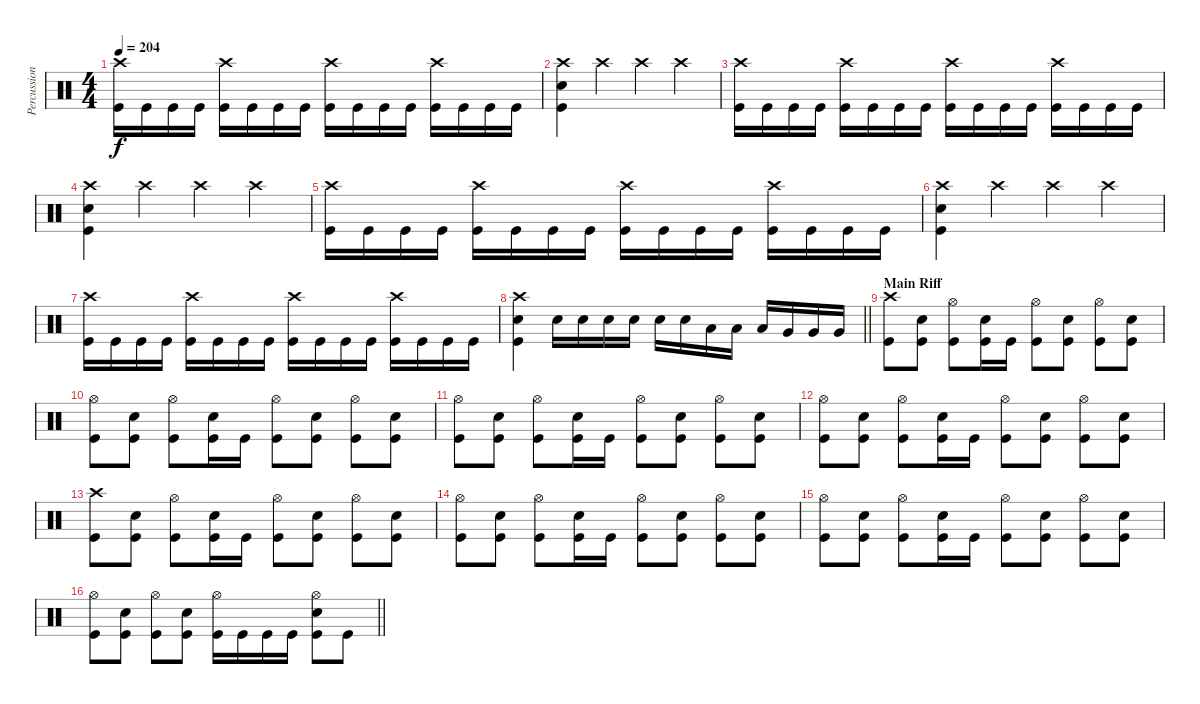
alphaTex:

\track ("Percussion" "Percussion") {instrument percussion}
\staff {score}
\articulation defaults
\ts (4 4)
\tempo 204
\clef neutral
\ks c
("Crash high (hit)" "Kick (hit)").16{dy f} "Kick (hit)".16 "Kick (hit)".16 "Kick (hit)".16 ("Crash high (hit)" "Kick (hit)").16 "Kick (hit)".16 "Kick (hit)".16 "Kick (hit)".16 ("Crash high (hit)" "Kick (hit)").16 "Kick (hit)".16 "Kick (hit)".16 "Kick (hit)".16 ("Crash high (hit)" "Kick (hit)").16 "Kick (hit)".16 "Kick (hit)".16 "Kick (hit)".16 |
("Crash high (hit)" "Electric Snare (hit)" "Kick (hit)").4 "Crash high (hit)".4 "Crash high (hit)".4 "Crash high (hit)".4 |
("Crash high (hit)" "Kick (hit)").16 "Kick (hit)".16 "Kick (hit)".16 "Kick (hit)".16 ("Crash high (hit)" "Kick (hit)").16 "Kick (hit)".16 "Kick (hit)".16 "Kick (hit)".16 ("Crash high (hit)" "Kick (hit)").16 "Kick (hit)".16 "Kick (hit)".16 "Kick (hit)".16 ("Crash high (hit)" "Kick (hit)").16 "Kick (hit)".16 "Kick (hit)".16 "Kick (hit)".16 |
("Crash high (hit)" "Electric Snare (hit)" "Kick (hit)").4 "Crash high (hit)".4 "Crash high (hit)".4 "Crash high (hit)".4 |
("Crash high (hit)" "Kick (hit)").16 "Kick (hit)".16 "Kick (hit)".16 "Kick (hit)".16 ("Crash high (hit)" "Kick (hit)").16 "Kick (hit)".16 "Kick (hit)".16 "Kick (hit)".16 ("Crash high (hit)" "Kick (hit)").16 "Kick (hit)".16 "Kick (hit)".16 "Kick (hit)".16 ("Crash high (hit)" "Kick (hit)").16 "Kick (hit)".16 "Kick (hit)".16 "Kick (hit)".16 |
("Crash high (hit)" "Electric Snare (hit)" "Kick (hit)").4 "Crash high (hit)".4 "Crash high (hit)".4 "Crash high (hit)".4 |
("Crash high (hit)" "Kick (hit)").16 "Kick (hit)".16 "Kick (hit)".16 "Kick (hit)".16 ("Crash high (hit)" "Kick (hit)").16 "Kick (hit)".16 "Kick (hit)".16 "Kick (hit)".16 ("Crash high (hit)" "Kick (hit)").16 "Kick (hit)".16 "Kick (hit)".16 "Kick (hit)".16 ("Crash high (hit)" "Kick (hit)").16 "Kick (hit)".16 "Kick (hit)".16 "Kick (hit)".16 |
\barLineRight lightlight
("Crash high (hit)" "Electric Snare (hit)" "Kick (hit)").4 "Electric Snare (hit)".16 "Electric Snare (hit)".16 "Electric Snare (hit)".16 "Electric Snare (hit)".16 "Electric Snare (hit)".16 "Electric Snare (hit)".16 "Low Tom (hit)".16 "Low Tom (hit)".16 "Low Tom (hit)".16 "Very Low Tom (hit)".16 "Very Low Tom (hit)".16 "Very Low Tom (hit)".16 |
\section ("" "Main Riff")
("Crash high (hit)" "Kick (hit)").8 ("Electric Snare (hit)" "Kick (hit)").8 ("Hi-Hat (open)" "Kick (hit)").8 ("Electric Snare (hit)" "Kick (hit)").16 "Kick (hit)".16 ("Hi-Hat (open)" "Kick (hit)").8 ("Electric Snare (hit)" "Kick (hit)").8 ("Hi-Hat (open)" "Kick (hit)").8 ("Electric Snare (hit)" "Kick (hit)").8 |
("Hi-Hat (open)" "Kick (hit)").8 ("Electric Snare (hit)" "Kick (hit)").8 ("Hi-Hat (open)" "Kick (hit)").8 ("Electric Snare (hit)" "Kick (hit)").16 "Kick (hit)".16 ("Hi-Hat (open)" "Kick (hit)").8 ("Electric Snare (hit)" "Kick (hit)").8 ("Hi-Hat (open)" "Kick (hit)").8 ("Electric Snare (hit)" "Kick (hit)").8 |
("Hi-Hat (open)" "Kick (hit)").8 ("Electric Snare (hit)" "Kick (hit)").8 ("Hi-Hat (open)" "Kick (hit)").8 ("Electric Snare (hit)" "Kick (hit)").16 "Kick (hit)".16 ("Hi-Hat (open)" "Kick (hit)").8 ("Electric Snare (hit)" "Kick (hit)").8 ("Hi-Hat (open)" "Kick (hit)").8 ("Electric Snare (hit)" "Kick (hit)").8 |
("Hi-Hat (open)" "Kick (hit)").8 ("Electric Snare (hit)" "Kick (hit)").8 ("Hi-Hat (open)" "Kick (hit)").8 ("Electric Snare (hit)" "Kick (hit)").16 "Kick (hit)".16 ("Hi-Hat (open)" "Kick (hit)").8 ("Electric Snare (hit)" "Kick (hit)").8 ("Hi-Hat (open)" "Kick (hit)").8 ("Electric Snare (hit)" "Kick (hit)").8 |
("Crash high (hit)" "Kick (hit)").8 ("Electric Snare (hit)" "Kick (hit)").8 ("Hi-Hat (open)" "Kick (hit)").8 ("Electric Snare (hit)" "Kick (hit)").16 "Kick (hit)".16 ("Hi-Hat (open)" "Kick (hit)").8 ("Electric Snare (hit)" "Kick (hit)").8 ("Hi-Hat (open)" "Kick (hit)").8 ("Electric Snare (hit)" "Kick (hit)").8 |
("Hi-Hat (open)" "Kick (hit)").8 ("Electric Snare (hit)" "Kick (hit)").8 ("Hi-Hat (open)" "Kick (hit)").8 ("Electric Snare (hit)" "Kick (hit)").16 "Kick (hit)".16 ("Hi-Hat (open)" "Kick (hit)").8 ("Electric Snare (hit)" "Kick (hit)").8 ("Hi-Hat (open)" "Kick (hit)").8 ("Electric Snare (hit)" "Kick (hit)").8 |
("Hi-Hat (open)" "Kick (hit)").8 ("Electric Snare (hit)" "Kick (hit)").8 ("Hi-Hat (open)" "Kick (hit)").8 ("Electric Snare (hit)" "Kick (hit)").16 "Kick (hit)".16 ("Hi-Hat (open)" "Kick (hit)").8 ("Electric Snare (hit)" "Kick (hit)").8 ("Hi-Hat (open)" "Kick (hit)").8 ("Electric Snare (hit)" "Kick (hit)").8 |
\barLineRight lightlight
("Hi-Hat (open)" "Kick (hit)").8 ("Electric Snare (hit)" "Kick (hit)").8 ("Hi-Hat (open)" "Kick (hit)").8 ("Electric Snare (hit)" "Kick (hit)").8 ("Hi-Hat (open)" "Kick (hit)").16 "Kick (hit)".16 "Kick (hit)".16 "Kick (hit)".16 ("Hi-Hat (open)" "Electric Snare (hit)" "Kick (hit)").8 "Kick (hit)".8
